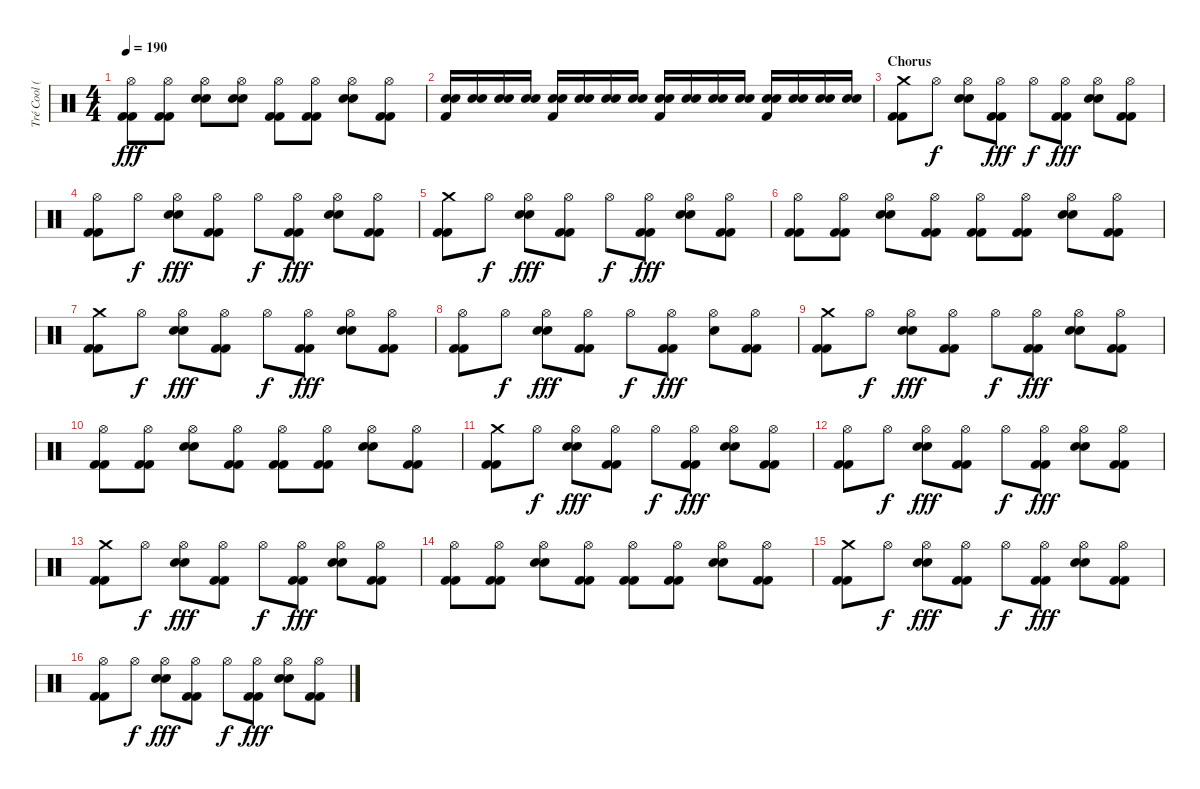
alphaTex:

\track ("Tré Cool (Drums)" "Tré Cool (") {instrument percussion}
\staff {score}
\articulation defaults
\ts (4 4)
\tempo 190
\clef neutral
\ks c
("Kick (hit) 2" "Kick (hit) 2" "Hi-Hat (open)").8{dy fff} ("Kick (hit) 2" "Kick (hit) 2" "Hi-Hat (open)").8 ("Electric Snare (hit)" "Electric Snare (hit)" "Hi-Hat (open)").8 ("Electric Snare (hit)" "Electric Snare (hit)" "Hi-Hat (open)").8 ("Kick (hit) 2" "Kick (hit) 2" "Hi-Hat (open)").8 ("Kick (hit) 2" "Kick (hit) 2" "Hi-Hat (open)").8 ("Electric Snare (hit)" "Electric Snare (hit)" "Hi-Hat (open)").8 ("Kick (hit) 2" "Kick (hit) 2" "Hi-Hat (open)").8 |
("Electric Snare (hit)" "Electric Snare (hit)" "Kick (hit) 2").16 ("Electric Snare (hit)" "Electric Snare (hit)").16 ("Electric Snare (hit)" "Electric Snare (hit)").16 ("Electric Snare (hit)" "Electric Snare (hit)").16 ("Electric Snare (hit)" "Electric Snare (hit)" "Kick (hit) 2").16 ("Electric Snare (hit)" "Electric Snare (hit)").16 ("Electric Snare (hit)" "Electric Snare (hit)").16 ("Electric Snare (hit)" "Electric Snare (hit)").16 ("Electric Snare (hit)" "Electric Snare (hit)" "Kick (hit) 2").16 ("Electric Snare (hit)" "Electric Snare (hit)").16 ("Electric Snare (hit)" "Electric Snare (hit)").16 ("Electric Snare (hit)" "Electric Snare (hit)").16 ("Electric Snare (hit)" "Electric Snare (hit)" "Kick (hit) 2").16 ("Electric Snare (hit)" "Electric Snare (hit)").16 ("Electric Snare (hit)" "Electric Snare (hit)").16 ("Electric Snare (hit)" "Electric Snare (hit)").16 |
\section ("" "Chorus")
("Kick (hit) 2" "Kick (hit) 2" "Crash medium (hit)").8 "Hi-Hat (open)".8{dy f} ("Electric Snare (hit)" "Electric Snare (hit)" "Hi-Hat (open)").8 ("Kick (hit) 2" "Kick (hit) 2" "Hi-Hat (open)").8{dy fff} "Hi-Hat (open)".8{dy f} ("Kick (hit) 2" "Kick (hit) 2" "Hi-Hat (open)").8{dy fff} ("Electric Snare (hit)" "Electric Snare (hit)" "Hi-Hat (open)").8 ("Kick (hit) 2" "Kick (hit) 2" "Hi-Hat (open)").8 |
("Kick (hit) 2" "Kick (hit) 2" "Hi-Hat (open)").8 "Hi-Hat (open)".8{dy f} ("Electric Snare (hit)" "Electric Snare (hit)" "Hi-Hat (open)").8{dy fff} ("Kick (hit) 2" "Kick (hit) 2" "Hi-Hat (open)").8 "Hi-Hat (open)".8{dy f} ("Kick (hit) 2" "Kick (hit) 2" "Hi-Hat (open)").8{dy fff} ("Electric Snare (hit)" "Electric Snare (hit)" "Hi-Hat (open)").8 ("Kick (hit) 2" "Kick (hit) 2" "Hi-Hat (open)").8 |
("Kick (hit) 2" "Kick (hit) 2" "Crash medium (hit)").8 "Hi-Hat (open)".8{dy f} ("Electric Snare (hit)" "Electric Snare (hit)" "Hi-Hat (open)").8{dy fff} ("Kick (hit) 2" "Kick (hit) 2" "Hi-Hat (open)").8 "Hi-Hat (open)".8{dy f} ("Kick (hit) 2" "Kick (hit) 2" "Hi-Hat (open)").8{dy fff} ("Electric Snare (hit)" "Electric Snare (hit)" "Hi-Hat (open)").8 ("Kick (hit) 2" "Kick (hit) 2" "Hi-Hat (open)").8 |
("Kick (hit) 2" "Kick (hit) 2" "Hi-Hat (open)").8 ("Kick (hit) 2" "Kick (hit) 2" "Hi-Hat (open)").8 ("Electric Snare (hit)" "Electric Snare (hit)" "Hi-Hat (open)").8 ("Kick (hit) 2" "Kick (hit) 2" "Hi-Hat (open)").8 ("Kick (hit) 2" "Kick (hit) 2" "Hi-Hat (open)").8 ("Kick (hit) 2" "Kick (hit) 2" "Hi-Hat (open)").8 ("Electric Snare (hit)" "Electric Snare (hit)" "Hi-Hat (open)").8 ("Kick (hit) 2" "Kick (hit) 2" "Hi-Hat (open)").8 |
("Kick (hit) 2" "Kick (hit) 2" "Crash medium (hit)").8 "Hi-Hat (open)".8{dy f} ("Electric Snare (hit)" "Electric Snare (hit)" "Hi-Hat (open)").8{dy fff} ("Kick (hit) 2" "Kick (hit) 2" "Hi-Hat (open)").8 "Hi-Hat (open)".8{dy f} ("Kick (hit) 2" "Kick (hit) 2" "Hi-Hat (open)").8{dy fff} ("Electric Snare (hit)" "Electric Snare (hit)" "Hi-Hat (open)").8 ("Kick (hit) 2" "Kick (hit) 2" "Hi-Hat (open)").8 |
("Kick (hit) 2" "Kick (hit) 2" "Hi-Hat (open)").8 "Hi-Hat (open)".8{dy f} ("Electric Snare (hit)" "Electric Snare (hit)" "Hi-Hat (open)").8{dy fff} ("Kick (hit) 2" "Kick (hit) 2" "Hi-Hat (open)").8 "Hi-Hat (open)".8{dy f} ("Kick (hit) 2" "Kick (hit) 2" "Hi-Hat (open)").8{dy fff} ("Electric Snare (hit)" "Hi-Hat (open)").8 ("Kick (hit) 2" "Kick (hit) 2" "Hi-Hat (open)").8 |
("Kick (hit) 2" "Kick (hit) 2" "Crash medium (hit)").8 "Hi-Hat (open)".8{dy f} ("Electric Snare (hit)" "Electric Snare (hit)" "Hi-Hat (open)").8{dy fff} ("Kick (hit) 2" "Kick (hit) 2" "Hi-Hat (open)").8 "Hi-Hat (open)".8{dy f} ("Kick (hit) 2" "Kick (hit) 2" "Hi-Hat (open)").8{dy fff} ("Electric Snare (hit)" "Electric Snare (hit)" "Hi-Hat (open)").8 ("Kick (hit) 2" "Kick (hit) 2" "Hi-Hat (open)").8 |
("Kick (hit) 2" "Kick (hit) 2" "Hi-Hat (open)").8 ("Kick (hit) 2" "Kick (hit) 2" "Hi-Hat (open)").8 ("Electric Snare (hit)" "Electric Snare (hit)" "Hi-Hat (open)").8 ("Kick (hit) 2" "Kick (hit) 2" "Hi-Hat (open)").8 ("Kick (hit) 2" "Kick (hit) 2" "Hi-Hat (open)").8 ("Kick (hit) 2" "Kick (hit) 2" "Hi-Hat (open)").8 ("Electric Snare (hit)" "Electric Snare (hit)" "Hi-Hat (open)").8 ("Kick (hit) 2" "Kick (hit) 2" "Hi-Hat (open)").8 |
("Kick (hit) 2" "Kick (hit) 2" "Crash medium (hit)").8 "Hi-Hat (open)".8{dy f} ("Electric Snare (hit)" "Electric Snare (hit)" "Hi-Hat (open)").8{dy fff} ("Kick (hit) 2" "Kick (hit) 2" "Hi-Hat (open)").8 "Hi-Hat (open)".8{dy f} ("Kick (hit) 2" "Kick (hit) 2" "Hi-Hat (open)").8{dy fff} ("Electric Snare (hit)" "Electric Snare (hit)" "Hi-Hat (open)").8 ("Kick (hit) 2" "Kick (hit) 2" "Hi-Hat (open)").8 |
("Kick (hit) 2" "Kick (hit) 2" "Hi-Hat (open)").8 "Hi-Hat (open)".8{dy f} ("Electric Snare (hit)" "Electric Snare (hit)" "Hi-Hat (open)").8{dy fff} ("Kick (hit) 2" "Kick (hit) 2" "Hi-Hat (open)").8 "Hi-Hat (open)".8{dy f} ("Kick (hit) 2" "Kick (hit) 2" "Hi-Hat (open)").8{dy fff} ("Electric Snare (hit)" "Electric Snare (hit)" "Hi-Hat (open)").8 ("Kick (hit) 2" "Kick (hit) 2" "Hi-Hat (open)").8 |
("Kick (hit) 2" "Kick (hit) 2" "Crash medium (hit)").8 "Hi-Hat (open)".8{dy f} ("Electric Snare (hit)" "Electric Snare (hit)" "Hi-Hat (open)").8{dy fff} ("Kick (hit) 2" "Kick (hit) 2" "Hi-Hat (open)").8 "Hi-Hat (open)".8{dy f} ("Kick (hit) 2" "Kick (hit) 2" "Hi-Hat (open)").8{dy fff} ("Electric Snare (hit)" "Electric Snare (hit)" "Hi-Hat (open)").8 ("Kick (hit) 2" "Kick (hit) 2" "Hi-Hat (open)").8 |
("Kick (hit) 2" "Kick (hit) 2" "Hi-Hat (open)").8 ("Kick (hit) 2" "Kick (hit) 2" "Hi-Hat (open)").8 ("Electric Snare (hit)" "Electric Snare (hit)" "Hi-Hat (open)").8 ("Kick (hit) 2" "Kick (hit) 2" "Hi-Hat (open)").8 ("Kick (hit) 2" "Kick (hit) 2" "Hi-Hat (open)").8 ("Kick (hit) 2" "Kick (hit) 2" "Hi-Hat (open)").8 ("Electric Snare (hit)" "Electric Snare (hit)" "Hi-Hat (open)").8 ("Kick (hit) 2" "Kick (hit) 2" "Hi-Hat (open)").8 |
("Kick (hit) 2" "Kick (hit) 2" "Crash medium (hit)").8 "Hi-Hat (open)".8{dy f} ("Electric Snare (hit)" "Electric Snare (hit)" "Hi-Hat (open)").8{dy fff} ("Kick (hit) 2" "Kick (hit) 2" "Hi-Hat (open)").8 "Hi-Hat (open)".8{dy f} ("Kick (hit) 2" "Kick (hit) 2" "Hi-Hat (open)").8{dy fff} ("Electric Snare (hit)" "Electric Snare (hit)" "Hi-Hat (open)").8 ("Kick (hit) 2" "Kick (hit) 2" "Hi-Hat (open)").8 |
("Kick (hit) 2" "Kick (hit) 2" "Hi-Hat (open)").8 "Hi-Hat (open)".8{dy f} ("Electric Snare (hit)" "Electric Snare (hit)" "Hi-Hat (open)").8{dy fff} ("Kick (hit) 2" "Kick (hit) 2" "Hi-Hat (open)").8 "Hi-Hat (open)".8{dy f} ("Kick (hit) 2" "Kick (hit) 2" "Hi-Hat (open)").8{dy fff} ("Electric Snare (hit)" "Electric Snare (hit)" "Hi-Hat (open)").8 ("Kick (hit) 2" "Kick (hit) 2" "Hi-Hat (open)").8
